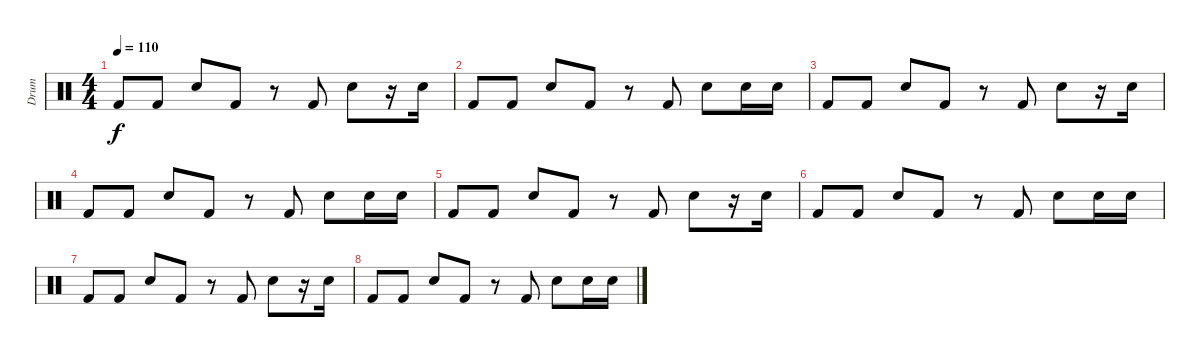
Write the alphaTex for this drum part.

\track ("Drum" "Drum") {instrument percussion}
\staff {score}
\articulation defaults
\ts (4 4)
\tempo 110
\clef neutral
\ks c "Kick (hit) 2".8{dy f} "Kick (hit) 2".8 "Snare (hit) 2".8 "Kick (hit) 2".8
r.8 "Kick (hit) 2".8 "Snare (hit) 2".8 r.16 "Snare (hit) 2".16 |
"Kick (hit) 2".8 "Kick (hit) 2".8 "Snare (hit) 2".8 "Kick (hit) 2".8 r.8 "Kick (hit) 2".8 "Snare (hit) 2".8 "Snare (hit) 2".16 "Snare (hit) 2".16 |
"Kick (hit) 2".8 "Kick (hit) 2".8 "Snare (hit) 2".8 "Kick (hit) 2".8 r.8 "Kick (hit) 2".8 "Snare (hit) 2".8 r.16 "Snare (hit) 2".16 |
"Kick (hit) 2".8 "Kick (hit) 2".8 "Snare (hit) 2".8 "Kick (hit) 2".8 r.8 "Kick (hit) 2".8 "Snare (hit) 2".8 "Snare (hit) 2".16 "Snare (hit) 2".16 |
"Kick (hit) 2".8 "Kick (hit) 2".8 "Snare (hit) 2".8 "Kick (hit) 2".8 r.8 "Kick (hit) 2".8 "Snare (hit) 2".8 r.16 "Snare (hit) 2".16 |
"Kick (hit) 2".8 "Kick (hit) 2".8 "Snare (hit) 2".8 "Kick (hit) 2".8 r.8 "Kick (hit) 2".8 "Snare (hit) 2".8 "Snare (hit) 2".16 "Snare (hit) 2".16 |
"Kick (hit) 2".8 "Kick (hit) 2".8 "Snare (hit) 2".8 "Kick (hit) 2".8 r.8 "Kick (hit) 2".8 "Snare (hit) 2".8 r.16 "Snare (hit) 2".16 |
"Kick (hit) 2".8 "Kick (hit) 2".8 "Snare (hit) 2".8 "Kick (hit) 2".8 r.8 "Kick (hit) 2".8 "Snare (hit) 2".8 "Snare (hit) 2".16 "Snare (hit) 2".16
